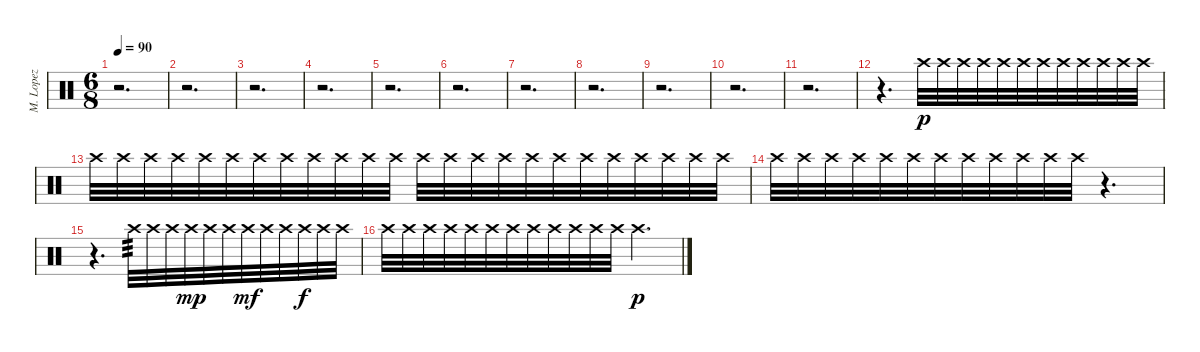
\track ("M. Lopez" "M. Lopez") {instrument percussion}
\staff {score}
\articulation defaults
\ts (6 8)
\tempo 90
\clef neutral
\ks c
r.2{d dy f} |
r.2{d} |
r.2{d} |
r.2{d} |
r.2{d} |
r.2{d} |
r.2{d} |
r.2{d} |
r.2{d} |
r.2{d} |
r.2{d} |
r.4{d} "Crash high (hit)".32{dy p} "Crash high (hit)".32 "Crash high (hit)".32 "Crash high (hit)".32 "Crash high (hit)".32 "Crash high (hit)".32 "Crash high (hit)".32 "Crash high (hit)".32 "Crash high (hit)".32 "Crash high (hit)".32 "Crash high (hit)".32 "Crash high (hit)".32 |
"Crash high (hit)".32 "Crash high (hit)".32 "Crash high (hit)".32 "Crash high (hit)".32 "Crash high (hit)".32 "Crash high (hit)".32 "Crash high (hit)".32 "Crash high (hit)".32 "Crash high (hit)".32 "Crash high (hit)".32 "Crash high (hit)".32 "Crash high (hit)".32 "Crash high (hit)".32 "Crash high (hit)".32 "Crash high (hit)".32 "Crash high (hit)".32 "Crash high (hit)".32 "Crash high (hit)".32 "Crash high (hit)".32 "Crash high (hit)".32 "Crash high (hit)".32 "Crash high (hit)".32 "Crash high (hit)".32 "Crash high (hit)".32 |
"Crash high (hit)".32 "Crash high (hit)".32 "Crash high (hit)".32 "Crash high (hit)".32 "Crash high (hit)".32 "Crash high (hit)".32 "Crash high (hit)".32 "Crash high (hit)".32 "Crash high (hit)".32 "Crash high (hit)".32 "Crash high (hit)".32 "Crash high (hit)".32 r.4{d} |
r.4{d} "Crash high (hit)".32{tp 3} "Crash high (hit)".32 "Crash high (hit)".32 "Crash high (hit)".32{dy mp} "Crash high (hit)".32 "Crash high (hit)".32 "Crash high (hit)".32{dy mf} "Crash high (hit)".32 "Crash high (hit)".32 "Crash high (hit)".32{dy f} "Crash high (hit)".32 "Crash high (hit)".32 |
"Crash high (hit)".32 "Crash high (hit)".32 "Crash high (hit)".32 "Crash high (hit)".32 "Crash high (hit)".32 "Crash high (hit)".32 "Crash high (hit)".32 "Crash high (hit)".32 "Crash high (hit)".32 "Crash high (hit)".32 "Crash high (hit)".32 "Crash high (hit)".32 "Crash high (hit)".4{d dy p}
